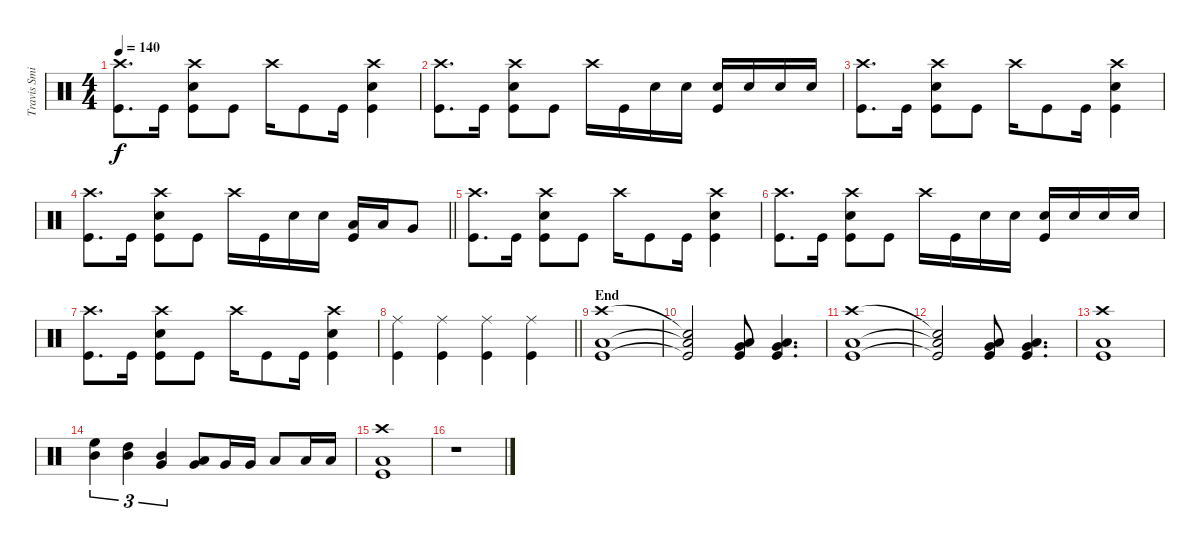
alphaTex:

\track ("Travis Smith" "Travis Smi") {instrument percussion}
\staff {score}
\articulation defaults
\ts (4 4)
\tempo 140
\clef neutral
\ks c
("Crash high (hit)" "Kick (hit)").8{d dy f} "Kick (hit)".16 ("Crash high (hit)" "Snare (hit) 2" "Kick (hit)").8 "Kick (hit)".8 "Crash high (hit)".16 "Kick (hit)".8 "Kick (hit)".16 ("Crash high (hit)" "Snare (hit) 2" "Kick (hit)").4 |
("Crash high (hit)" "Kick (hit)").8{d} "Kick (hit)".16 ("Crash high (hit)" "Snare (hit) 2" "Kick (hit)").8 "Kick (hit)".8 "Crash high (hit)".16 "Kick (hit)".16 "Snare (hit) 2".16 "Snare (hit) 2".16 ("Snare (hit) 2" "Kick (hit)").16 "Snare (hit) 2".16 "Snare (hit) 2".16 "Snare (hit) 2".16 |
("Crash high (hit)" "Kick (hit)").8{d} "Kick (hit)".16 ("Crash high (hit)" "Snare (hit) 2" "Kick (hit)").8 "Kick (hit)".8 "Crash high (hit)".16 "Kick (hit)".8 "Kick (hit)".16 ("Crash high (hit)" "Snare (hit) 2" "Kick (hit)").4 |
\barLineRight lightlight
("Crash high (hit)" "Kick (hit)").8{d} "Kick (hit)".16 ("Crash high (hit)" "Snare (hit) 2" "Kick (hit)").8 "Kick (hit)".8 "Crash high (hit)".16 "Kick (hit)".16 "Snare (hit) 2".16 "Snare (hit) 2".16 ("Low Tom (hit)" "Kick (hit)").16 "Low Tom (hit)".16 "Very Low Tom (hit)".8 |
("Crash high (hit)" "Kick (hit)").8{d} "Kick (hit)".16 ("Crash high (hit)" "Snare (hit) 2" "Kick (hit)").8 "Kick (hit)".8 "Crash high (hit)".16 "Kick (hit)".8 "Kick (hit)".16 ("Crash high (hit)" "Snare (hit) 2" "Kick (hit)").4 |
("Crash high (hit)" "Kick (hit)").8{d} "Kick (hit)".16 ("Crash high (hit)" "Snare (hit) 2" "Kick (hit)").8 "Kick (hit)".8 "Crash high (hit)".16 "Kick (hit)".16 "Snare (hit) 2".16 "Snare (hit) 2".16 ("Snare (hit) 2" "Kick (hit)").16 "Snare (hit) 2".16 "Snare (hit) 2".16 "Snare (hit) 2".16 |
("Crash high (hit)" "Kick (hit)").8{d} "Kick (hit)".16 ("Crash high (hit)" "Snare (hit) 2" "Kick (hit)").8 "Kick (hit)".8 "Crash high (hit)".16 "Kick (hit)".8 "Kick (hit)".16 ("Crash high (hit)" "Snare (hit) 2" "Kick (hit)").4 |
\barLineRight lightlight
("Ride (middle)" "Kick (hit)").4 ("Ride (middle)" "Kick (hit)").4 ("Ride (middle)" "Kick (hit)").4 ("Ride (middle)" "Kick (hit)").4 |
\section ("" "End")
("Crash high (hit)" "Low Floor Tom (hit)" "Kick (hit)").1 |
("Snare (hit)"{t} "Low Floor Tom (hit)"{t} "Kick (hit)"{t}).2 ("Low Floor Tom (hit)" "Very Low Tom (hit)" "Kick (hit)").8 ("Low Floor Tom (hit)" "Very Low Tom (hit)" "Kick (hit)").4{d} |
("Crash high (hit)" "Low Floor Tom (hit)" "Kick (hit)").1 |
("Snare (hit)"{t} "Low Floor Tom (hit)"{t} "Kick (hit)"{t}).2 ("Low Floor Tom (hit)" "Very Low Tom (hit)" "Kick (hit)").8 ("Low Floor Tom (hit)" "Very Low Tom (hit)" "Kick (hit)").4{d} |
("Crash high (hit)" "Low Floor Tom (hit)" "Kick (hit)").1 |
("High Floor Tom (hit)" "Mid Tom (hit)").4{tu (3 2)} ("High Tom (hit)" "Mid Tom (hit)").4{tu (3 2)} ("Mid Tom (hit)" "Very Low Tom (hit)").4{tu (3 2)} ("Low Tom (hit)" "Very Low Tom (hit)").8 "Very Low Tom (hit)".16 "Very Low Tom (hit)".16 "Low Floor Tom (hit)".8 "Low Floor Tom (hit)".16 "Low Floor Tom (hit)".16 |
("Crash high (hit)" "Low Floor Tom (hit)" "Kick (hit)").1 |
r.1
